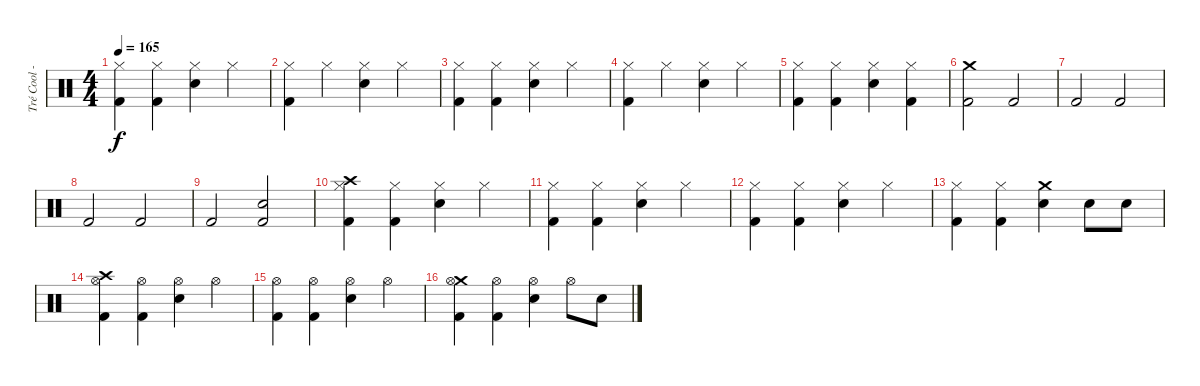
\track ("Tré Cool - Drums" "Tré Cool -") {instrument percussion}
\staff {score}
\articulation defaults
\ts (4 4)
\tempo 165
\clef neutral
\ks c
("Hi-Hat (closed)" "Kick (hit) 2").4{dy f} ("Hi-Hat (closed)" "Kick (hit) 2").4 ("Hi-Hat (closed)" "Electric Snare (hit)").4 "Hi-Hat (closed)".4 |
("Hi-Hat (closed)" "Kick (hit) 2").4 "Hi-Hat (closed)".4 ("Hi-Hat (closed)" "Electric Snare (hit)").4 "Hi-Hat (closed)".4 |
("Hi-Hat (closed)" "Kick (hit) 2").4 ("Hi-Hat (closed)" "Kick (hit) 2").4 ("Hi-Hat (closed)" "Electric Snare (hit)").4 "Hi-Hat (closed)".4 |
("Hi-Hat (closed)" "Kick (hit) 2").4 "Hi-Hat (closed)".4 ("Hi-Hat (closed)" "Electric Snare (hit)").4 "Hi-Hat (closed)".4 |
("Hi-Hat (closed)" "Kick (hit) 2").4 ("Hi-Hat (closed)" "Kick (hit) 2").4 ("Hi-Hat (closed)" "Electric Snare (hit)").4 ("Hi-Hat (closed)" "Kick (hit) 2").4 |
("Crash medium (hit)" "Kick (hit) 2").2 "Kick (hit) 2".2 |
"Kick (hit) 2".2 "Kick (hit) 2".2 |
"Kick (hit) 2".2 "Kick (hit) 2".2 |
"Kick (hit) 2".2 ("Kick (hit) 2" "Electric Snare (hit)").2 |
("Crash high (hit)" "Hi-Hat (closed)" "Kick (hit) 2").4 ("Hi-Hat (closed)" "Kick (hit) 2").4 ("Hi-Hat (closed)" "Electric Snare (hit)").4 "Hi-Hat (closed)".4 |
("Hi-Hat (closed)" "Kick (hit) 2").4 ("Hi-Hat (closed)" "Kick (hit) 2").4 ("Hi-Hat (closed)" "Electric Snare (hit)").4 "Hi-Hat (closed)".4 |
("Hi-Hat (closed)" "Kick (hit) 2").4 ("Hi-Hat (closed)" "Kick (hit) 2").4 ("Hi-Hat (closed)" "Electric Snare (hit)").4 "Hi-Hat (closed)".4 |
("Hi-Hat (closed)" "Kick (hit) 2").4 ("Hi-Hat (closed)" "Kick (hit) 2").4 ("Crash medium (hit)" "Electric Snare (hit)").4 "Electric Snare (hit)".8 "Electric Snare (hit)".8 |
("Crash high (hit)" "Hi-Hat (open)" "Kick (hit) 2").4 ("Hi-Hat (open)" "Kick (hit) 2").4 ("Hi-Hat (open)" "Electric Snare (hit)").4 "Hi-Hat (open)".4 |
("Hi-Hat (open)" "Kick (hit) 2").4 ("Hi-Hat (open)" "Kick (hit) 2").4 ("Hi-Hat (open)" "Electric Snare (hit)").4 "Hi-Hat (open)".4 |
("Crash medium (hit)" "Hi-Hat (open)" "Kick (hit) 2").4 ("Hi-Hat (open)" "Kick (hit) 2").4 ("Hi-Hat (open)" "Electric Snare (hit)").4 "Hi-Hat (open)".8 "Electric Snare (hit)".8
